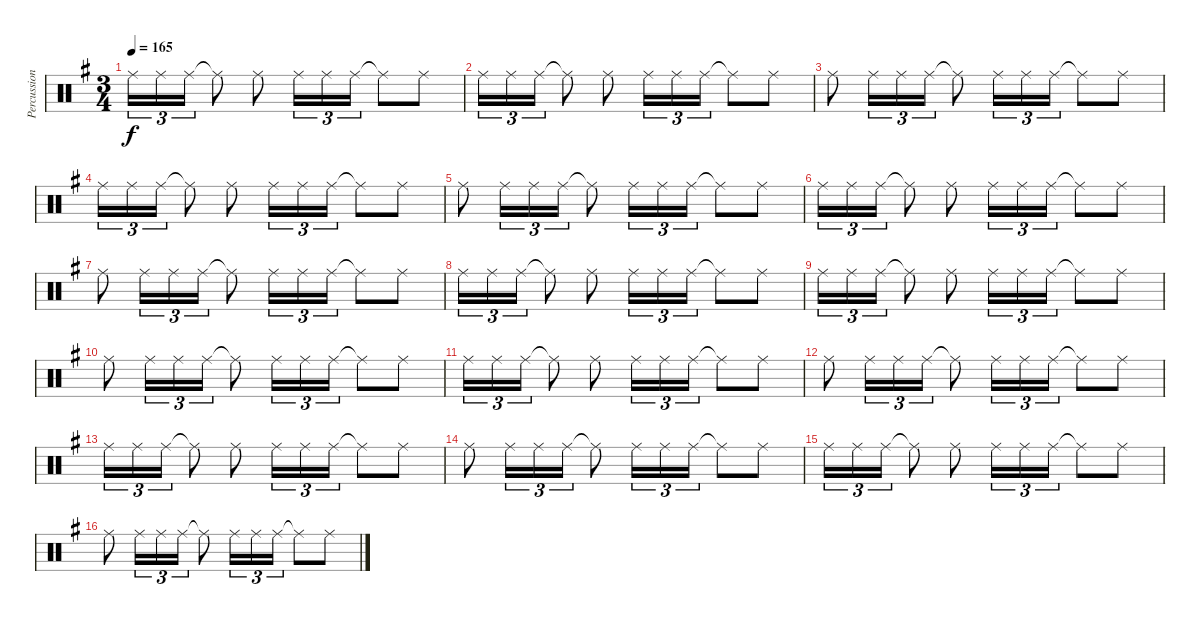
\track ("Percussion" "Percussion") {instrument percussion}
\staff {score}
\articulation defaults
\ts (3 4)
\tempo 165
\clef neutral
\ks g "Ride (middle)".16{tu (3 2) dy f} "Ride (middle)".16{tu (3 2)} "Ride (middle)".16{tu (3 2)} "Ride (middle)"{t}.8 "Ride (middle)".8 "Ride (middle)".16{tu (3 2)} "Ride (middle)".16{tu (3 2)} "Ride (middle)".16{tu (3 2)} "Ride (middle)"{t}.8 "Ride (middle)".8
|
"Ride (middle)".16{tu (3 2)} "Ride (middle)".16{tu (3 2)} "Ride (middle)".16{tu (3 2)} "Ride (middle)"{t}.8 "Ride (middle)".8 "Ride (middle)".16{tu (3 2)} "Ride (middle)".16{tu (3 2)} "Ride (middle)".16{tu (3 2)} "Ride (middle)"{t}.8 "Ride (middle)".8 |
"Ride (middle)".8 "Ride (middle)".16{tu (3 2)} "Ride (middle)".16{tu (3 2)} "Ride (middle)".16{tu (3 2)} "Ride (middle)"{t}.8 "Ride (middle)".16{tu (3 2)} "Ride (middle)".16{tu (3 2)} "Ride (middle)".16{tu (3 2)} "Ride (middle)"{t}.8 "Ride (middle)".8 |
"Ride (middle)".16{tu (3 2)} "Ride (middle)".16{tu (3 2)} "Ride (middle)".16{tu (3 2)} "Ride (middle)"{t}.8 "Ride (middle)".8 "Ride (middle)".16{tu (3 2)} "Ride (middle)".16{tu (3 2)} "Ride (middle)".16{tu (3 2)} "Ride (middle)"{t}.8 "Ride (middle)".8 |
"Ride (middle)".8 "Ride (middle)".16{tu (3 2)} "Ride (middle)".16{tu (3 2)} "Ride (middle)".16{tu (3 2)} "Ride (middle)"{t}.8 "Ride (middle)".16{tu (3 2)} "Ride (middle)".16{tu (3 2)} "Ride (middle)".16{tu (3 2)} "Ride (middle)"{t}.8 "Ride (middle)".8 |
"Ride (middle)".16{tu (3 2)} "Ride (middle)".16{tu (3 2)} "Ride (middle)".16{tu (3 2)} "Ride (middle)"{t}.8 "Ride (middle)".8 "Ride (middle)".16{tu (3 2)} "Ride (middle)".16{tu (3 2)} "Ride (middle)".16{tu (3 2)} "Ride (middle)"{t}.8 "Ride (middle)".8 |
"Ride (middle)".8 "Ride (middle)".16{tu (3 2)} "Ride (middle)".16{tu (3 2)} "Ride (middle)".16{tu (3 2)} "Ride (middle)"{t}.8 "Ride (middle)".16{tu (3 2)} "Ride (middle)".16{tu (3 2)} "Ride (middle)".16{tu (3 2)} "Ride (middle)"{t}.8 "Ride (middle)".8 |
"Ride (middle)".16{tu (3 2)} "Ride (middle)".16{tu (3 2)} "Ride (middle)".16{tu (3 2)} "Ride (middle)"{t}.8 "Ride (middle)".8 "Ride (middle)".16{tu (3 2)} "Ride (middle)".16{tu (3 2)} "Ride (middle)".16{tu (3 2)} "Ride (middle)"{t}.8 "Ride (middle)".8 |
"Ride (middle)".16{tu (3 2)} "Ride (middle)".16{tu (3 2)} "Ride (middle)".16{tu (3 2)} "Ride (middle)"{t}.8 "Ride (middle)".8 "Ride (middle)".16{tu (3 2)} "Ride (middle)".16{tu (3 2)} "Ride (middle)".16{tu (3 2)} "Ride (middle)"{t}.8 "Ride (middle)".8 |
"Ride (middle)".8 "Ride (middle)".16{tu (3 2)} "Ride (middle)".16{tu (3 2)} "Ride (middle)".16{tu (3 2)} "Ride (middle)"{t}.8 "Ride (middle)".16{tu (3 2)} "Ride (middle)".16{tu (3 2)} "Ride (middle)".16{tu (3 2)} "Ride (middle)"{t}.8 "Ride (middle)".8 |
"Ride (middle)".16{tu (3 2)} "Ride (middle)".16{tu (3 2)} "Ride (middle)".16{tu (3 2)} "Ride (middle)"{t}.8 "Ride (middle)".8 "Ride (middle)".16{tu (3 2)} "Ride (middle)".16{tu (3 2)} "Ride (middle)".16{tu (3 2)} "Ride (middle)"{t}.8 "Ride (middle)".8 |
"Ride (middle)".8 "Ride (middle)".16{tu (3 2)} "Ride (middle)".16{tu (3 2)} "Ride (middle)".16{tu (3 2)} "Ride (middle)"{t}.8 "Ride (middle)".16{tu (3 2)} "Ride (middle)".16{tu (3 2)} "Ride (middle)".16{tu (3 2)} "Ride (middle)"{t}.8 "Ride (middle)".8 |
"Ride (middle)".16{tu (3 2)} "Ride (middle)".16{tu (3 2)} "Ride (middle)".16{tu (3 2)} "Ride (middle)"{t}.8 "Ride (middle)".8 "Ride (middle)".16{tu (3 2)} "Ride (middle)".16{tu (3 2)} "Ride (middle)".16{tu (3 2)} "Ride (middle)"{t}.8 "Ride (middle)".8 |
"Ride (middle)".8 "Ride (middle)".16{tu (3 2)} "Ride (middle)".16{tu (3 2)} "Ride (middle)".16{tu (3 2)} "Ride (middle)"{t}.8 "Ride (middle)".16{tu (3 2)} "Ride (middle)".16{tu (3 2)} "Ride (middle)".16{tu (3 2)} "Ride (middle)"{t}.8 "Ride (middle)".8 |
"Ride (middle)".16{tu (3 2)} "Ride (middle)".16{tu (3 2)} "Ride (middle)".16{tu (3 2)} "Ride (middle)"{t}.8 "Ride (middle)".8 "Ride (middle)".16{tu (3 2)} "Ride (middle)".16{tu (3 2)} "Ride (middle)".16{tu (3 2)} "Ride (middle)"{t}.8 "Ride (middle)".8 |
"Ride (middle)".8 "Ride (middle)".16{tu (3 2)} "Ride (middle)".16{tu (3 2)} "Ride (middle)".16{tu (3 2)} "Ride (middle)"{t}.8 "Ride (middle)".16{tu (3 2)} "Ride (middle)".16{tu (3 2)} "Ride (middle)".16{tu (3 2)} "Ride (middle)"{t}.8 "Ride (middle)".8
